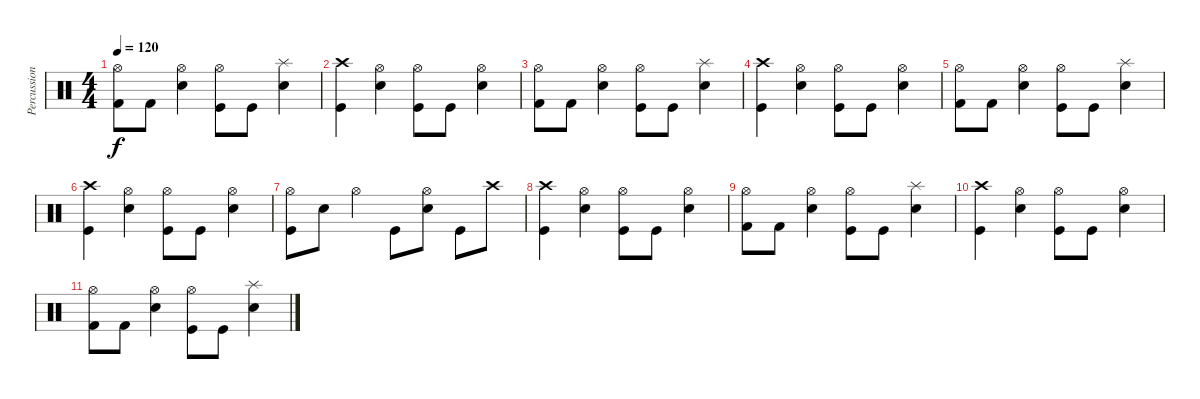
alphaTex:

\track ("Percussion" "Percussion") {instrument percussion}
\staff {score}
\articulation defaults
\ts (4 4)
\tempo 120
\clef neutral
\ks c
("Hi-Hat (open)" "Kick (hit) 2").8{dy f} "Kick (hit) 2".8 ("Hi-Hat (open)" "Snare (hit) 2").4 ("Hi-Hat (open)" "Kick (hit)").8 "Kick (hit)".8 ("Splash (hit)" "Snare (hit) 2").4 |
("Crash high (hit)" "Kick (hit)").4 ("Hi-Hat (open)" "Snare (hit) 2").4 ("Hi-Hat (open)" "Kick (hit)").8 "Kick (hit)".8 ("Hi-Hat (open)" "Snare (hit) 2").4 |
("Hi-Hat (open)" "Kick (hit) 2").8 "Kick (hit) 2".8 ("Hi-Hat (open)" "Snare (hit) 2").4 ("Hi-Hat (open)" "Kick (hit)").8 "Kick (hit)".8 ("Splash (hit)" "Snare (hit) 2").4 |
("Crash high (hit)" "Kick (hit)").4 ("Hi-Hat (open)" "Snare (hit) 2").4 ("Hi-Hat (open)" "Kick (hit)").8 "Kick (hit)".8 ("Hi-Hat (open)" "Snare (hit) 2").4 |
("Hi-Hat (open)" "Kick (hit) 2").8 "Kick (hit) 2".8 ("Hi-Hat (open)" "Snare (hit) 2").4 ("Hi-Hat (open)" "Kick (hit)").8 "Kick (hit)".8 ("Splash (hit)" "Snare (hit) 2").4 |
("Crash high (hit)" "Kick (hit)").4 ("Hi-Hat (open)" "Snare (hit) 2").4 ("Hi-Hat (open)" "Kick (hit)").8 "Kick (hit)".8 ("Hi-Hat (open)" "Snare (hit) 2").4 |
("Hi-Hat (open)" "Kick (hit)").8 "Snare (hit) 2".8 "Hi-Hat (open)".4 "Kick (hit)".8 ("Hi-Hat (open)" "Snare (hit) 2").8 "Kick (hit)".8 "Crash high (hit)".8 |
("Crash high (hit)" "Kick (hit)").4 ("Hi-Hat (open)" "Snare (hit) 2").4 ("Hi-Hat (open)" "Kick (hit)").8 "Kick (hit)".8 ("Hi-Hat (open)" "Snare (hit) 2").4 |
("Hi-Hat (open)" "Kick (hit) 2").8 "Kick (hit) 2".8 ("Hi-Hat (open)" "Snare (hit) 2").4 ("Hi-Hat (open)" "Kick (hit)").8 "Kick (hit)".8 ("Splash (hit)" "Snare (hit) 2").4 |
("Crash high (hit)" "Kick (hit)").4 ("Hi-Hat (open)" "Snare (hit) 2").4 ("Hi-Hat (open)" "Kick (hit)").8 "Kick (hit)".8 ("Hi-Hat (open)" "Snare (hit) 2").4 |
("Hi-Hat (open)" "Kick (hit) 2").8 "Kick (hit) 2".8 ("Hi-Hat (open)" "Snare (hit) 2").4 ("Hi-Hat (open)" "Kick (hit)").8 "Kick (hit)".8 ("Splash (hit)" "Snare (hit) 2").4
